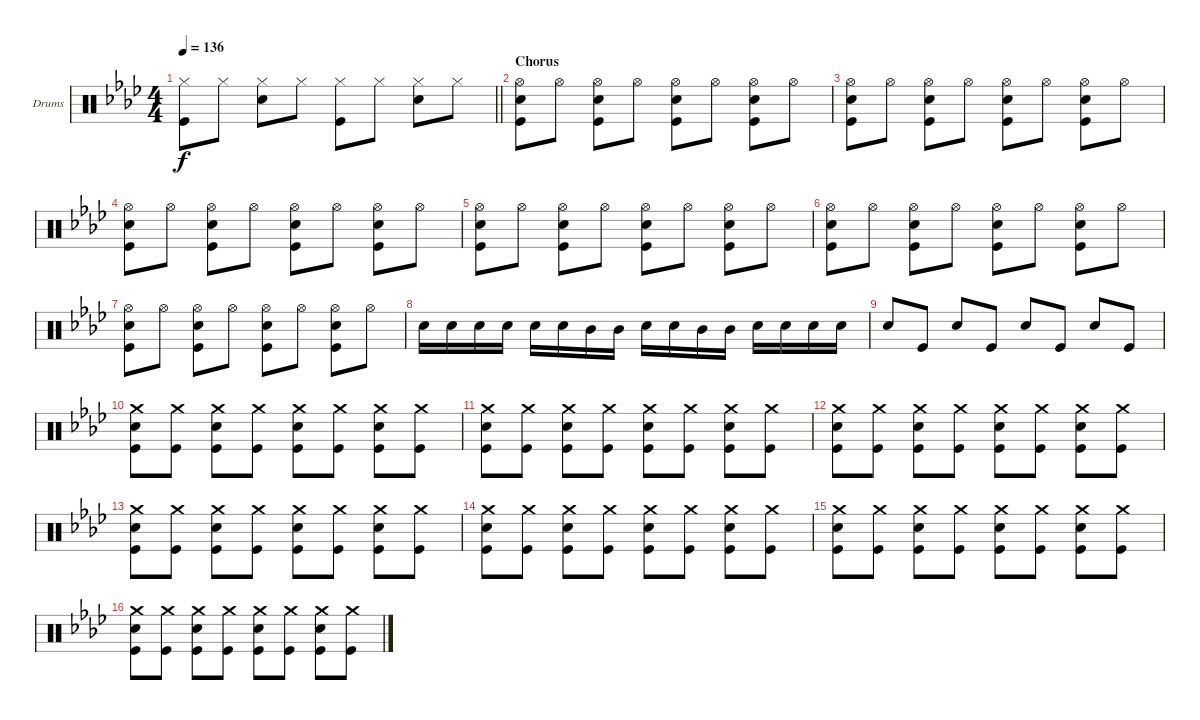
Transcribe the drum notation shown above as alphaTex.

\bracketExtendMode groupsimilarinstruments
\firstSystemTrackNameOrientation horizontal
\otherSystemsTrackNameOrientation horizontal
\track ("Fabrizio" "Drums") {instrument percussion}
\staff {score}
\articulation defaults
\ts (4 4)
\tempo 136
\clef neutral
\barLineRight lightlight
\ks ab
("Hi-Hat (closed)" "Kick (hit)").8{dy f} "Hi-Hat (closed)".8 ("Hi-Hat (closed)" "Snare (hit) 2").8 "Hi-Hat (closed)".8 ("Hi-Hat (closed)" "Kick (hit)").8 "Hi-Hat (closed)".8 ("Hi-Hat (closed)" "Snare (hit) 2").8 "Hi-Hat (closed)".8 |
\section ("" "Chorus")
("Hi-Hat (open)" "Snare (hit) 2" "Kick (hit)").8 "Hi-Hat (open)".8 ("Hi-Hat (open)" "Snare (hit) 2" "Kick (hit)").8 "Hi-Hat (open)".8 ("Hi-Hat (open)" "Snare (hit) 2" "Kick (hit)").8 "Hi-Hat (open)".8 ("Hi-Hat (open)" "Snare (hit) 2" "Kick (hit)").8 "Hi-Hat (open)".8 |
("Hi-Hat (open)" "Snare (hit) 2" "Kick (hit)").8 "Hi-Hat (open)".8 ("Hi-Hat (open)" "Snare (hit) 2" "Kick (hit)").8 "Hi-Hat (open)".8 ("Hi-Hat (open)" "Snare (hit) 2" "Kick (hit)").8 "Hi-Hat (open)".8 ("Hi-Hat (open)" "Snare (hit) 2" "Kick (hit)").8 "Hi-Hat (open)".8 |
("Hi-Hat (open)" "Snare (hit) 2" "Kick (hit)").8 "Hi-Hat (open)".8 ("Hi-Hat (open)" "Snare (hit) 2" "Kick (hit)").8 "Hi-Hat (open)".8 ("Hi-Hat (open)" "Snare (hit) 2" "Kick (hit)").8 "Hi-Hat (open)".8 ("Hi-Hat (open)" "Snare (hit) 2" "Kick (hit)").8 "Hi-Hat (open)".8 |
("Hi-Hat (open)" "Snare (hit) 2" "Kick (hit)").8 "Hi-Hat (open)".8 ("Hi-Hat (open)" "Snare (hit) 2" "Kick (hit)").8 "Hi-Hat (open)".8 ("Hi-Hat (open)" "Snare (hit) 2" "Kick (hit)").8 "Hi-Hat (open)".8 ("Hi-Hat (open)" "Snare (hit) 2" "Kick (hit)").8 "Hi-Hat (open)".8 |
("Hi-Hat (open)" "Snare (hit) 2" "Kick (hit)").8 "Hi-Hat (open)".8 ("Hi-Hat (open)" "Snare (hit) 2" "Kick (hit)").8 "Hi-Hat (open)".8 ("Hi-Hat (open)" "Snare (hit) 2" "Kick (hit)").8 "Hi-Hat (open)".8 ("Hi-Hat (open)" "Snare (hit) 2" "Kick (hit)").8 "Hi-Hat (open)".8 |
("Hi-Hat (open)" "Snare (hit) 2" "Kick (hit)").8 "Hi-Hat (open)".8 ("Hi-Hat (open)" "Snare (hit) 2" "Kick (hit)").8 "Hi-Hat (open)".8 ("Hi-Hat (open)" "Snare (hit) 2" "Kick (hit)").8 "Hi-Hat (open)".8 ("Hi-Hat (open)" "Snare (hit) 2" "Kick (hit)").8 "Hi-Hat (open)".8 |
"Snare (hit) 2".16 "Snare (hit) 2".16 "Snare (hit) 2".16 "Snare (hit) 2".16 "Snare (hit) 2".16 "Snare (hit) 2".16 "Mid Tom (hit)".16 "Mid Tom (hit)".16 "Snare (hit) 2".16 "Snare (hit) 2".16 "Mid Tom (hit)".16 "Mid Tom (hit)".16 "Snare (hit) 2".16 "Snare (hit) 2".16 "Snare (hit) 2".16 "Snare (hit) 2".16 |
"Snare (hit) 2".8 "Kick (hit)".8 "Snare (hit) 2".8 "Kick (hit)".8 "Snare (hit) 2".8 "Kick (hit)".8 "Snare (hit) 2".8 "Kick (hit)".8 |
("Crash medium (hit)" "Snare (hit) 2" "Kick (hit)").8 ("Crash medium (hit)" "Kick (hit)").8 ("Crash medium (hit)" "Snare (hit) 2" "Kick (hit)").8 ("Crash medium (hit)" "Kick (hit)").8 ("Crash medium (hit)" "Snare (hit) 2" "Kick (hit)").8 ("Crash medium (hit)" "Kick (hit)").8 ("Crash medium (hit)" "Snare (hit) 2" "Kick (hit)").8 ("Crash medium (hit)" "Kick (hit)").8 |
("Crash medium (hit)" "Snare (hit) 2" "Kick (hit)").8 ("Crash medium (hit)" "Kick (hit)").8 ("Crash medium (hit)" "Snare (hit) 2" "Kick (hit)").8 ("Crash medium (hit)" "Kick (hit)").8 ("Crash medium (hit)" "Snare (hit) 2" "Kick (hit)").8 ("Crash medium (hit)" "Kick (hit)").8 ("Crash medium (hit)" "Snare (hit) 2" "Kick (hit)").8 ("Crash medium (hit)" "Kick (hit)").8 |
("Crash medium (hit)" "Snare (hit) 2" "Kick (hit)").8 ("Crash medium (hit)" "Kick (hit)").8 ("Crash medium (hit)" "Snare (hit) 2" "Kick (hit)").8 ("Crash medium (hit)" "Kick (hit)").8 ("Crash medium (hit)" "Snare (hit) 2" "Kick (hit)").8 ("Crash medium (hit)" "Kick (hit)").8 ("Crash medium (hit)" "Snare (hit) 2" "Kick (hit)").8 ("Crash medium (hit)" "Kick (hit)").8 |
("Crash medium (hit)" "Snare (hit) 2" "Kick (hit)").8 ("Crash medium (hit)" "Kick (hit)").8 ("Crash medium (hit)" "Snare (hit) 2" "Kick (hit)").8 ("Crash medium (hit)" "Kick (hit)").8 ("Crash medium (hit)" "Snare (hit) 2" "Kick (hit)").8 ("Crash medium (hit)" "Kick (hit)").8 ("Crash medium (hit)" "Snare (hit) 2" "Kick (hit)").8 ("Crash medium (hit)" "Kick (hit)").8 |
("Crash medium (hit)" "Snare (hit) 2" "Kick (hit)").8 ("Crash medium (hit)" "Kick (hit)").8 ("Crash medium (hit)" "Snare (hit) 2" "Kick (hit)").8 ("Crash medium (hit)" "Kick (hit)").8 ("Crash medium (hit)" "Snare (hit) 2" "Kick (hit)").8 ("Crash medium (hit)" "Kick (hit)").8 ("Crash medium (hit)" "Snare (hit) 2" "Kick (hit)").8 ("Crash medium (hit)" "Kick (hit)").8 |
("Crash medium (hit)" "Snare (hit) 2" "Kick (hit)").8 ("Crash medium (hit)" "Kick (hit)").8 ("Crash medium (hit)" "Snare (hit) 2" "Kick (hit)").8 ("Crash medium (hit)" "Kick (hit)").8 ("Crash medium (hit)" "Snare (hit) 2" "Kick (hit)").8 ("Crash medium (hit)" "Kick (hit)").8 ("Crash medium (hit)" "Snare (hit) 2" "Kick (hit)").8 ("Crash medium (hit)" "Kick (hit)").8 |
("Crash medium (hit)" "Snare (hit) 2" "Kick (hit)").8 ("Crash medium (hit)" "Kick (hit)").8 ("Crash medium (hit)" "Snare (hit) 2" "Kick (hit)").8 ("Crash medium (hit)" "Kick (hit)").8 ("Crash medium (hit)" "Snare (hit) 2" "Kick (hit)").8 ("Crash medium (hit)" "Kick (hit)").8 ("Crash medium (hit)" "Snare (hit) 2" "Kick (hit)").8 ("Crash medium (hit)" "Kick (hit)").8
